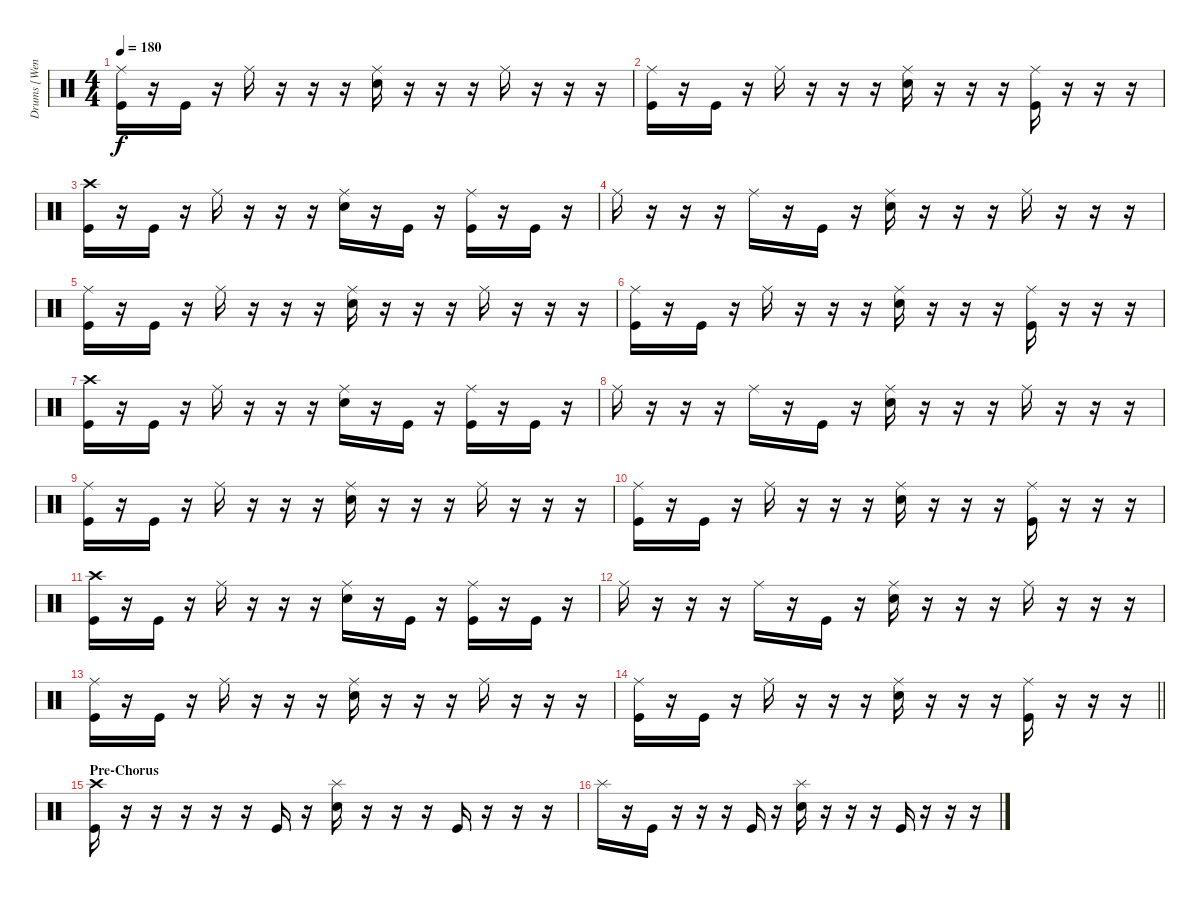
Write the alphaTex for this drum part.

\track ("Drums [Wengren]" "Drums [Wen") {instrument percussion}
\staff {score}
\articulation defaults
\ts (4 4)
\tempo 180
\clef neutral
\ks c
("Ride (middle)" "Kick (hit)").16{dy f} r.16 "Kick (hit)".16 r.16 "Ride (middle)".16 r.16 r.16 r.16 ("Ride (middle)" "Electric Snare (hit)").16 r.16 r.16 r.16 "Ride (middle)".16 r.16 r.16 r.16 |
("Ride (middle)" "Kick (hit)").16 r.16 "Kick (hit)".16 r.16 "Ride (middle)".16 r.16 r.16 r.16 ("Ride (middle)" "Electric Snare (hit)").16 r.16 r.16 r.16 ("Ride (middle)" "Kick (hit)").16 r.16 r.16 r.16 |
("Crash high (hit)" "Kick (hit)").16 r.16 "Kick (hit)".16 r.16 "Ride (middle)".16 r.16 r.16 r.16 ("Ride (middle)" "Electric Snare (hit)").16 r.16 "Kick (hit)".16 r.16 ("Ride (middle)" "Kick (hit)").16 r.16 "Kick (hit)".16 r.16 |
"Ride (middle)".16 r.16 r.16 r.16 "Ride (middle)".16 r.16 "Kick (hit)".16 r.16 ("Ride (middle)" "Electric Snare (hit)").16 r.16 r.16 r.16 "Ride (middle)".16 r.16 r.16 r.16 |
("Ride (middle)" "Kick (hit)").16 r.16 "Kick (hit)".16 r.16 "Ride (middle)".16 r.16 r.16 r.16 ("Ride (middle)" "Electric Snare (hit)").16 r.16 r.16 r.16 "Ride (middle)".16 r.16 r.16 r.16 |
("Ride (middle)" "Kick (hit)").16 r.16 "Kick (hit)".16 r.16 "Ride (middle)".16 r.16 r.16 r.16 ("Ride (middle)" "Electric Snare (hit)").16 r.16 r.16 r.16 ("Ride (middle)" "Kick (hit)").16 r.16 r.16 r.16 |
("Crash high (hit)" "Kick (hit)").16 r.16 "Kick (hit)".16 r.16 "Ride (middle)".16 r.16 r.16 r.16 ("Ride (middle)" "Electric Snare (hit)").16 r.16 "Kick (hit)".16 r.16 ("Ride (middle)" "Kick (hit)").16 r.16 "Kick (hit)".16 r.16 |
"Ride (middle)".16 r.16 r.16 r.16 "Ride (middle)".16 r.16 "Kick (hit)".16 r.16 ("Ride (middle)" "Electric Snare (hit)").16 r.16 r.16 r.16 "Ride (middle)".16 r.16 r.16 r.16 |
("Ride (middle)" "Kick (hit)").16 r.16 "Kick (hit)".16 r.16 "Ride (middle)".16 r.16 r.16 r.16 ("Ride (middle)" "Electric Snare (hit)").16 r.16 r.16 r.16 "Ride (middle)".16 r.16 r.16 r.16 |
("Ride (middle)" "Kick (hit)").16 r.16 "Kick (hit)".16 r.16 "Ride (middle)".16 r.16 r.16 r.16 ("Ride (middle)" "Electric Snare (hit)").16 r.16 r.16 r.16 ("Ride (middle)" "Kick (hit)").16 r.16 r.16 r.16 |
("Crash high (hit)" "Kick (hit)").16 r.16 "Kick (hit)".16 r.16 "Ride (middle)".16 r.16 r.16 r.16 ("Ride (middle)" "Electric Snare (hit)").16 r.16 "Kick (hit)".16 r.16 ("Ride (middle)" "Kick (hit)").16 r.16 "Kick (hit)".16 r.16 |
"Ride (middle)".16 r.16 r.16 r.16 "Ride (middle)".16 r.16 "Kick (hit)".16 r.16 ("Ride (middle)" "Electric Snare (hit)").16 r.16 r.16 r.16 "Ride (middle)".16 r.16 r.16 r.16 |
("Ride (middle)" "Kick (hit)").16 r.16 "Kick (hit)".16 r.16 "Ride (middle)".16 r.16 r.16 r.16 ("Ride (middle)" "Electric Snare (hit)").16 r.16 r.16 r.16 "Ride (middle)".16 r.16 r.16 r.16 |
\barLineRight lightlight
("Ride (middle)" "Kick (hit)").16 r.16 "Kick (hit)".16 r.16 "Ride (middle)".16 r.16 r.16 r.16 ("Ride (middle)" "Electric Snare (hit)").16 r.16 r.16 r.16 ("Ride (middle)" "Kick (hit)").16 r.16 r.16 r.16 |
\section ("" "Pre-Chorus")
("Crash high (hit)" "Kick (hit)").16 r.16 r.16 r.16 r.16 r.16 "Kick (hit)".16 r.16 ("Splash (hit)" "Electric Snare (hit)").16 r.16 r.16 r.16 "Kick (hit)".16 r.16 r.16 r.16 |
"Splash (hit)".16 r.16 "Kick (hit)".16 r.16 r.16 r.16 "Kick (hit)".16 r.16 ("Splash (hit)" "Electric Snare (hit)").16 r.16 r.16 r.16 "Kick (hit)".16 r.16 r.16 r.16
